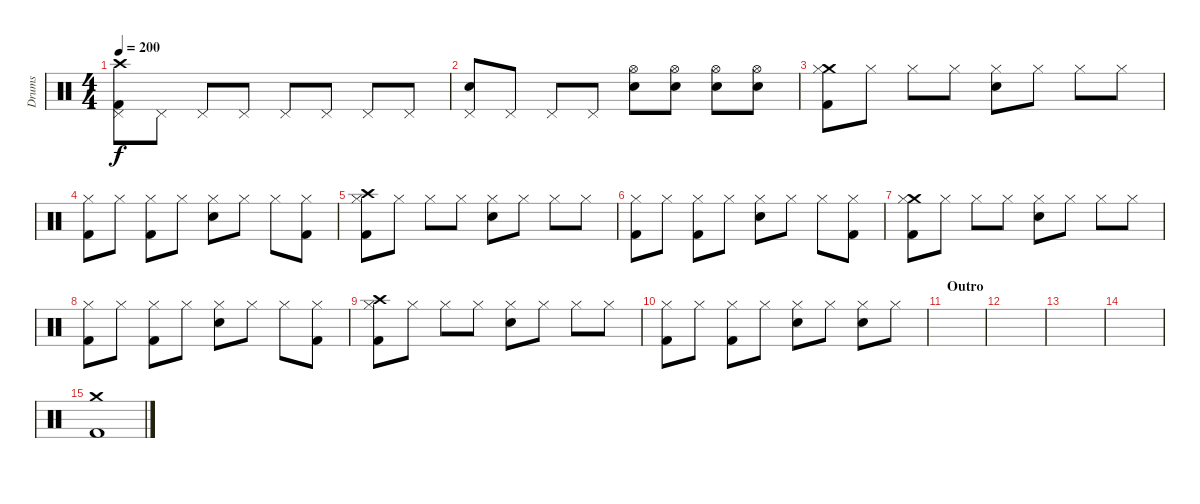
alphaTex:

\track ("Drums" "Drums") {instrument percussion}
\staff {score}
\articulation defaults
\ts (4 4)
\tempo 200
\clef neutral
\ks c
("Crash high (hit)" "Pedal Hi-Hat (hit)" "Kick (hit) 2").8{dy f} "Pedal Hi-Hat (hit)".8 "Pedal Hi-Hat (hit)".8 "Pedal Hi-Hat (hit)".8 "Pedal Hi-Hat (hit)".8 "Pedal Hi-Hat (hit)".8 "Pedal Hi-Hat (hit)".8 "Pedal Hi-Hat (hit)".8 |
("Pedal Hi-Hat (hit)" "Electric Snare (hit)").8 "Pedal Hi-Hat (hit)".8 "Pedal Hi-Hat (hit)".8 "Pedal Hi-Hat (hit)".8 ("Hi-Hat (open)" "Electric Snare (hit)").8 ("Hi-Hat (open)" "Electric Snare (hit)").8 ("Hi-Hat (open)" "Electric Snare (hit)").8 ("Hi-Hat (open)" "Electric Snare (hit)").8 |
("Crash medium (hit)" "Hi-Hat (closed)" "Kick (hit) 2").8 "Hi-Hat (closed)".8 "Hi-Hat (closed)".8 "Hi-Hat (closed)".8 ("Hi-Hat (closed)" "Electric Snare (hit)").8 "Hi-Hat (closed)".8 "Hi-Hat (closed)".8 "Hi-Hat (closed)".8 |
("Hi-Hat (closed)" "Kick (hit) 2").8 "Hi-Hat (closed)".8 ("Hi-Hat (closed)" "Kick (hit) 2").8 "Hi-Hat (closed)".8 ("Hi-Hat (closed)" "Electric Snare (hit)").8 "Hi-Hat (closed)".8 "Hi-Hat (closed)".8 ("Hi-Hat (closed)" "Kick (hit) 2").8 |
("Crash high (hit)" "Hi-Hat (closed)" "Kick (hit) 2").8 "Hi-Hat (closed)".8 "Hi-Hat (closed)".8 "Hi-Hat (closed)".8 ("Hi-Hat (closed)" "Electric Snare (hit)").8 "Hi-Hat (closed)".8 "Hi-Hat (closed)".8 "Hi-Hat (closed)".8 |
("Hi-Hat (closed)" "Kick (hit) 2").8 "Hi-Hat (closed)".8 ("Hi-Hat (closed)" "Kick (hit) 2").8 "Hi-Hat (closed)".8 ("Hi-Hat (closed)" "Electric Snare (hit)").8 "Hi-Hat (closed)".8 "Hi-Hat (closed)".8 ("Hi-Hat (closed)" "Kick (hit) 2").8 |
("Crash medium (hit)" "Hi-Hat (closed)" "Kick (hit) 2").8 "Hi-Hat (closed)".8 "Hi-Hat (closed)".8 "Hi-Hat (closed)".8 ("Hi-Hat (closed)" "Electric Snare (hit)").8 "Hi-Hat (closed)".8 "Hi-Hat (closed)".8 "Hi-Hat (closed)".8 |
("Hi-Hat (closed)" "Kick (hit) 2").8 "Hi-Hat (closed)".8 ("Hi-Hat (closed)" "Kick (hit) 2").8 "Hi-Hat (closed)".8 ("Hi-Hat (closed)" "Electric Snare (hit)").8 "Hi-Hat (closed)".8 "Hi-Hat (closed)".8 ("Hi-Hat (closed)" "Kick (hit) 2").8 |
("Crash high (hit)" "Hi-Hat (closed)" "Kick (hit) 2").8 "Hi-Hat (closed)".8 "Hi-Hat (closed)".8 "Hi-Hat (closed)".8 ("Hi-Hat (closed)" "Electric Snare (hit)").8 "Hi-Hat (closed)".8 "Hi-Hat (closed)".8 "Hi-Hat (closed)".8 |
("Hi-Hat (closed)" "Kick (hit) 2").8 "Hi-Hat (closed)".8 ("Hi-Hat (closed)" "Kick (hit) 2").8 "Hi-Hat (closed)".8 ("Hi-Hat (closed)" "Electric Snare (hit)").8 "Hi-Hat (closed)".8 ("Hi-Hat (closed)" "Electric Snare (hit)").8 "Hi-Hat (closed)".8 |
\section ("" "Outro")
|
|
|
|
("Crash medium (hit)" "Kick (hit) 2").1
